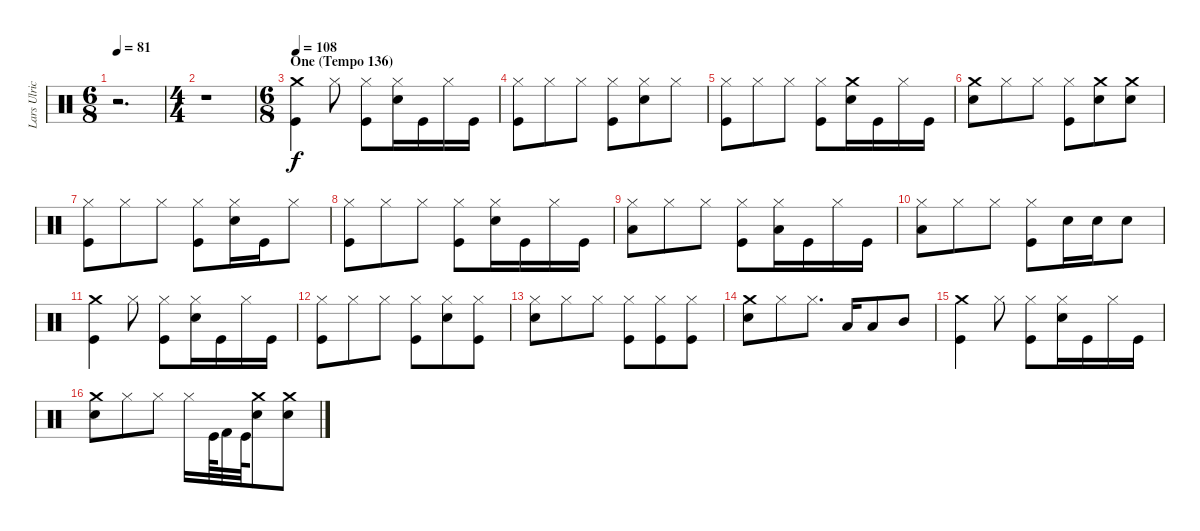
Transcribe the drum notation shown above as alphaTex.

\track ("Lars Ulrich (Drums)" "Lars Ulric") {instrument percussion}
\staff {score}
\articulation defaults
\ts (6 8)
\tempo 81
\clef neutral
\ks c
r.2{d dy f} |
\ts (4 4)
r.1 |
\ts (6 8)
\section ("" "One (Tempo 136)")
\tempo 108
("Crash medium (hit)" "Kick (hit)").4 "Hi-Hat (closed)".8 ("Kick (hit)" "Hi-Hat (closed)").8 ("Snare (hit) 2" "Hi-Hat (closed)").16 "Kick (hit)".16 "Hi-Hat (closed)".16 "Kick (hit)".16 |
("Hi-Hat (closed)" "Kick (hit)").8 "Hi-Hat (closed)".8 "Hi-Hat (closed)".8 ("Hi-Hat (closed)" "Kick (hit)").8 ("Snare (hit) 2" "Hi-Hat (closed)").8 "Hi-Hat (closed)".8 |
("Hi-Hat (closed)" "Kick (hit)").8 "Hi-Hat (closed)".8 "Hi-Hat (closed)".8 ("Kick (hit)" "Hi-Hat (closed)").8 ("Crash medium (hit)" "Snare (hit) 2").16 "Kick (hit)".16 "Hi-Hat (closed)".16 "Kick (hit)".16 |
("Crash medium (hit)" "Snare (hit) 2").8 "Hi-Hat (closed)".8 "Hi-Hat (closed)".8 ("Kick (hit)" "Hi-Hat (closed)").8 ("Crash medium (hit)" "Snare (hit) 2").8 ("Snare (hit) 2" "Crash medium (hit)").8 |
("Hi-Hat (closed)" "Kick (hit)").8 "Hi-Hat (closed)".8 "Hi-Hat (closed)".8 ("Kick (hit)" "Hi-Hat (closed)").8 ("Hi-Hat (closed)" "Snare (hit) 2").16 "Kick (hit)".16 "Hi-Hat (closed)".8 |
("Hi-Hat (closed)" "Kick (hit)").8 "Hi-Hat (closed)".8 "Hi-Hat (closed)".8 ("Kick (hit)" "Hi-Hat (closed)").8 ("Hi-Hat (closed)" "Snare (hit) 2").16 "Kick (hit)".16 "Hi-Hat (closed)".16 "Kick (hit)".16 |
("Hi-Hat (closed)" "Low Tom (hit)").8 "Hi-Hat (closed)".8 "Hi-Hat (closed)".8 ("Kick (hit)" "Hi-Hat (closed)").8 ("Hi-Hat (closed)" "Low Tom (hit)").16 "Kick (hit)".16 "Hi-Hat (closed)".16 "Kick (hit)".16 |
("Hi-Hat (closed)" "Low Tom (hit)").8 "Hi-Hat (closed)".8 "Hi-Hat (closed)".8 ("Kick (hit)" "Hi-Hat (closed)").8 "Snare (hit) 2".16 "Snare (hit) 2".16 "Snare (hit) 2".8 |
("Kick (hit)" "Crash medium (hit)").4 "Hi-Hat (closed)".8 ("Kick (hit)" "Hi-Hat (closed)").8 ("Hi-Hat (closed)" "Snare (hit) 2").16 "Kick (hit)".16 "Hi-Hat (closed)".16 "Kick (hit)".16 |
("Hi-Hat (closed)" "Kick (hit)").8 "Hi-Hat (closed)".8 "Hi-Hat (closed)".8 ("Kick (hit)" "Hi-Hat (closed)").8 ("Hi-Hat (closed)" "Snare (hit) 2").8 ("Kick (hit)" "Hi-Hat (closed)").8 |
("Hi-Hat (closed)" "Snare (hit) 2").8 "Hi-Hat (closed)".8 "Hi-Hat (closed)".8 ("Kick (hit)" "Hi-Hat (closed)").8 ("Hi-Hat (closed)" "Kick (hit)").8 ("Hi-Hat (closed)" "Kick (hit)").8 |
("Crash medium (hit)" "Snare (hit) 2").8 "Hi-Hat (closed)".8 "Hi-Hat (closed)".8{d} "Low Tom (hit)".16 "Low Tom (hit)".8 "Mid Tom (hit)".8 |
("Crash medium (hit)" "Kick (hit)").4 "Hi-Hat (closed)".8 ("Kick (hit)" "Hi-Hat (closed)").8 ("Hi-Hat (closed)" "Snare (hit) 2").16 "Kick (hit)".16 "Hi-Hat (closed)".16 "Kick (hit)".16 |
("Crash medium (hit)" "Snare (hit) 2").8 "Hi-Hat (closed)".8 "Hi-Hat (closed)".8 "Hi-Hat (closed)".16 "Kick (hit)".64 "Kick (hit) 2".32 "Kick (hit)".64 ("Crash medium (hit)" "Snare (hit) 2").8 ("Crash medium (hit)" "Snare (hit) 2").8
